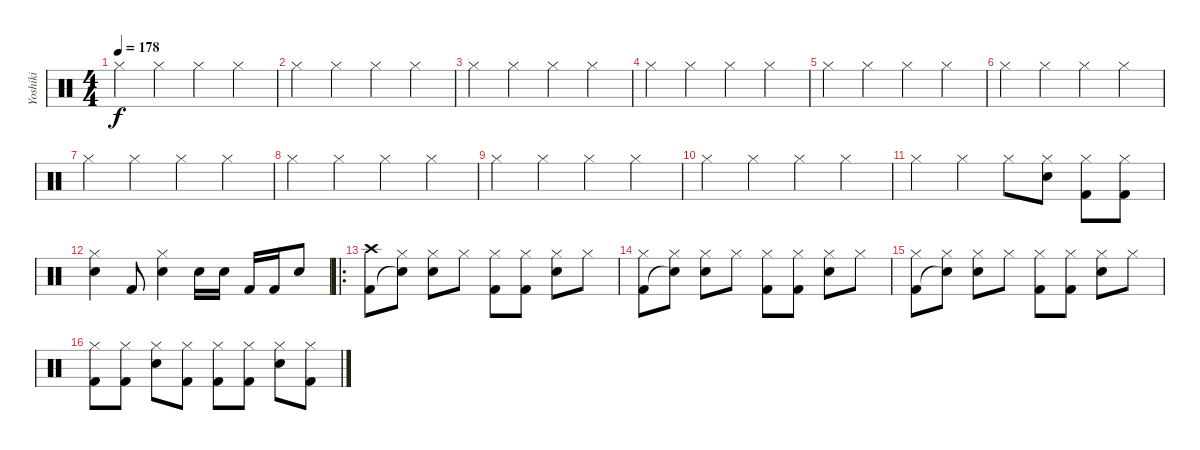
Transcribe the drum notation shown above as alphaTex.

\track ("Yoshiki" "Yoshiki") {instrument percussion}
\staff {score}
\articulation defaults
\ts (4 4)
\tempo 178
\clef neutral
\ks c "Hi-Hat (closed)".4{dy f} "Hi-Hat (closed)".4 "Hi-Hat (closed)".4 "Hi-Hat (closed)".4
|
"Hi-Hat (closed)".4 "Hi-Hat (closed)".4 "Hi-Hat (closed)".4 "Hi-Hat (closed)".4 |
"Hi-Hat (closed)".4 "Hi-Hat (closed)".4 "Hi-Hat (closed)".4 "Hi-Hat (closed)".4 |
"Hi-Hat (closed)".4 "Hi-Hat (closed)".4 "Hi-Hat (closed)".4 "Hi-Hat (closed)".4 |
"Hi-Hat (closed)".4 "Hi-Hat (closed)".4 "Hi-Hat (closed)".4 "Hi-Hat (closed)".4 |
"Hi-Hat (closed)".4 "Hi-Hat (closed)".4 "Hi-Hat (closed)".4 "Hi-Hat (closed)".4 |
"Hi-Hat (closed)".4 "Hi-Hat (closed)".4 "Hi-Hat (closed)".4 "Hi-Hat (closed)".4 |
"Hi-Hat (closed)".4 "Hi-Hat (closed)".4 "Hi-Hat (closed)".4 "Hi-Hat (closed)".4 |
"Hi-Hat (closed)".4 "Hi-Hat (closed)".4 "Hi-Hat (closed)".4 "Hi-Hat (closed)".4 |
"Hi-Hat (closed)".4 "Hi-Hat (closed)".4 "Hi-Hat (closed)".4 "Hi-Hat (closed)".4 |
"Hi-Hat (closed)".4 "Hi-Hat (closed)".4 "Hi-Hat (closed)".8 ("Hi-Hat (closed)" "Snare (hit) 2").8 ("Hi-Hat (closed)" "Kick (hit) 2").8 ("Hi-Hat (closed)" "Kick (hit) 2").8 |
("Hi-Hat (closed)" "Snare (hit) 2").4 "Kick (hit) 2".8 ("Hi-Hat (closed)" "Snare (hit) 2").4 "Snare (hit) 2".16 "Snare (hit) 2".16 "Kick (hit) 2".16 "Kick (hit) 2".16 "Snare (hit) 2".8 |
\ro
("Crash high (hit)" "Kick (hit) 2").8 ("Hi-Hat (closed)" "Snare (hit)"{t}).8 ("Hi-Hat (closed)" "Snare (hit) 2").8 "Hi-Hat (closed)".8 ("Hi-Hat (closed)" "Kick (hit) 2").8 ("Hi-Hat (closed)" "Kick (hit) 2").8 ("Hi-Hat (closed)" "Snare (hit) 2").8 "Hi-Hat (closed)".8 |
("Hi-Hat (closed)" "Kick (hit) 2").8 ("Hi-Hat (closed)" "Snare (hit)"{t}).8 ("Hi-Hat (closed)" "Snare (hit) 2").8 "Hi-Hat (closed)".8 ("Hi-Hat (closed)" "Kick (hit) 2").8 ("Hi-Hat (closed)" "Kick (hit) 2").8 ("Hi-Hat (closed)" "Snare (hit) 2").8 "Hi-Hat (closed)".8 |
("Hi-Hat (closed)" "Kick (hit) 2").8 ("Hi-Hat (closed)" "Snare (hit)"{t}).8 ("Hi-Hat (closed)" "Snare (hit) 2").8 "Hi-Hat (closed)".8 ("Hi-Hat (closed)" "Kick (hit) 2").8 ("Hi-Hat (closed)" "Kick (hit) 2").8 ("Hi-Hat (closed)" "Snare (hit) 2").8 "Hi-Hat (closed)".8 |
("Hi-Hat (closed)" "Kick (hit) 2").8 ("Hi-Hat (closed)" "Kick (hit) 2").8 ("Hi-Hat (closed)" "Snare (hit) 2").8 ("Hi-Hat (closed)" "Kick (hit) 2").8 ("Hi-Hat (closed)" "Kick (hit) 2").8 ("Hi-Hat (closed)" "Kick (hit) 2").8 ("Hi-Hat (closed)" "Snare (hit) 2").8 ("Hi-Hat (closed)" "Kick (hit) 2").8
